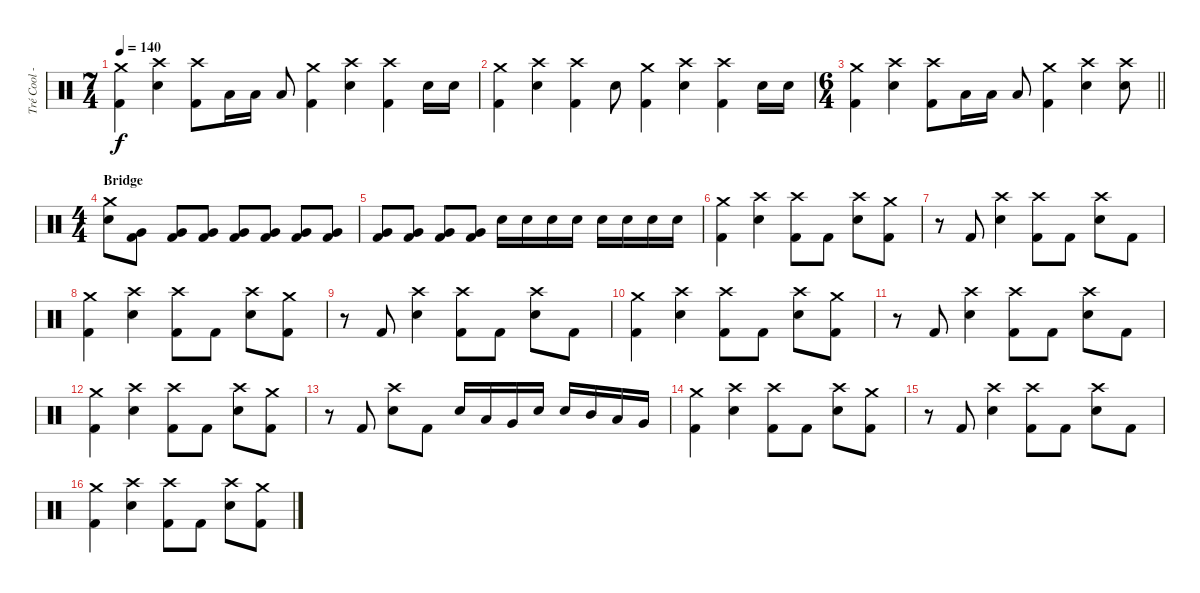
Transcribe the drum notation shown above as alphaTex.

\track ("Tré Cool - Drums" "Tré Cool -") {instrument percussion}
\staff {score}
\articulation defaults
\ts (7 4)
\tempo 140
\clef neutral
\ks c
("Crash medium (hit)" "Kick (hit) 2").4{dy f} ("Crash high (hit)" "Electric Snare (hit)").4 ("Crash high (hit)" "Kick (hit) 2").8 "Low Tom (hit)".16 "Low Tom (hit)".16 "Low Tom (hit)".8 ("Crash medium (hit)" "Kick (hit) 2").4 ("Crash high (hit)" "Electric Snare (hit)").4 ("Crash high (hit)" "Kick (hit) 2").4 "Electric Snare (hit)".16 "Electric Snare (hit)".16 |
("Crash medium (hit)" "Kick (hit) 2").4 ("Crash high (hit)" "Electric Snare (hit)").4 ("Crash high (hit)" "Kick (hit) 2").4 "Electric Snare (hit)".8 ("Crash medium (hit)" "Kick (hit) 2").4 ("Crash high (hit)" "Electric Snare (hit)").4 ("Crash high (hit)" "Kick (hit) 2").4 "Electric Snare (hit)".16 "Electric Snare (hit)".16 |
\ts (6 4)
\barLineRight lightlight
("Crash medium (hit)" "Kick (hit) 2").4 ("Crash high (hit)" "Electric Snare (hit)").4 ("Crash high (hit)" "Kick (hit) 2").8 "Low Tom (hit)".16 "Low Tom (hit)".16 "Low Tom (hit)".8 ("Crash medium (hit)" "Kick (hit) 2").4 ("Crash high (hit)" "Electric Snare (hit)").4 ("Crash high (hit)" "Electric Snare (hit)").8 |
\ts (4 4)
\section ("" "Bridge")
("Crash medium (hit)" "Electric Snare (hit)").8 ("Very Low Tom (hit)" "Kick (hit) 2").8 ("Very Low Tom (hit)" "Kick (hit) 2").8 ("Very Low Tom (hit)" "Kick (hit) 2").8 ("Very Low Tom (hit)" "Kick (hit) 2").8 ("Very Low Tom (hit)" "Kick (hit) 2").8 ("Very Low Tom (hit)" "Kick (hit) 2").8 ("Very Low Tom (hit)" "Kick (hit) 2").8 |
("Very Low Tom (hit)" "Kick (hit) 2").8 ("Very Low Tom (hit)" "Kick (hit) 2").8 ("Very Low Tom (hit)" "Kick (hit) 2").8 ("Very Low Tom (hit)" "Kick (hit) 2").8 "Electric Snare (hit)".16 "Electric Snare (hit)".16 "Electric Snare (hit)".16 "Electric Snare (hit)".16 "Electric Snare (hit)".16 "Electric Snare (hit)".16 "Electric Snare (hit)".16 "Electric Snare (hit)".16 |
("Crash medium (hit)" "Kick (hit) 2").4 ("Crash high (hit)" "Electric Snare (hit)").4 ("Crash high (hit)" "Kick (hit) 2").8 "Kick (hit) 2".8 ("Crash high (hit)" "Electric Snare (hit)").8 ("Crash medium (hit)" "Kick (hit) 2").8 |
r.8 "Kick (hit) 2".8 ("Crash high (hit)" "Electric Snare (hit)").4 ("Crash high (hit)" "Kick (hit) 2").8 "Kick (hit) 2".8 ("Crash high (hit)" "Electric Snare (hit)").8 "Kick (hit) 2".8 |
("Crash medium (hit)" "Kick (hit) 2").4 ("Crash high (hit)" "Electric Snare (hit)").4 ("Crash high (hit)" "Kick (hit) 2").8 "Kick (hit) 2".8 ("Crash high (hit)" "Electric Snare (hit)").8 ("Crash medium (hit)" "Kick (hit) 2").8 |
r.8 "Kick (hit) 2".8 ("Crash high (hit)" "Electric Snare (hit)").4 ("Crash high (hit)" "Kick (hit) 2").8 "Kick (hit) 2".8 ("Crash high (hit)" "Electric Snare (hit)").8 "Kick (hit) 2".8 |
("Crash medium (hit)" "Kick (hit) 2").4 ("Crash high (hit)" "Electric Snare (hit)").4 ("Crash high (hit)" "Kick (hit) 2").8 "Kick (hit) 2".8 ("Crash high (hit)" "Electric Snare (hit)").8 ("Crash medium (hit)" "Kick (hit) 2").8 |
r.8 "Kick (hit) 2".8 ("Crash high (hit)" "Electric Snare (hit)").4 ("Crash high (hit)" "Kick (hit) 2").8 "Kick (hit) 2".8 ("Crash high (hit)" "Electric Snare (hit)").8 "Kick (hit) 2".8 |
("Crash medium (hit)" "Kick (hit) 2").4 ("Crash high (hit)" "Electric Snare (hit)").4 ("Crash high (hit)" "Kick (hit) 2").8 "Kick (hit) 2".8 ("Crash high (hit)" "Electric Snare (hit)").8 ("Crash medium (hit)" "Kick (hit) 2").8 |
r.8 "Kick (hit) 2".8 ("Crash high (hit)" "Electric Snare (hit)").8 "Kick (hit) 2".8 "Electric Snare (hit)".16 "Low Tom (hit)".16 "Very Low Tom (hit)".16 "Electric Snare (hit)".16 "Electric Snare (hit)".16 "Mid Tom (hit)".16 "Low Tom (hit)".16 "Very Low Tom (hit)".16 |
("Crash medium (hit)" "Kick (hit) 2").4 ("Crash high (hit)" "Electric Snare (hit)").4 ("Crash high (hit)" "Kick (hit) 2").8 "Kick (hit) 2".8 ("Crash high (hit)" "Electric Snare (hit)").8 ("Crash medium (hit)" "Kick (hit) 2").8 |
r.8 "Kick (hit) 2".8 ("Crash high (hit)" "Electric Snare (hit)").4 ("Crash high (hit)" "Kick (hit) 2").8 "Kick (hit) 2".8 ("Crash high (hit)" "Electric Snare (hit)").8 "Kick (hit) 2".8 |
("Crash medium (hit)" "Kick (hit) 2").4 ("Crash high (hit)" "Electric Snare (hit)").4 ("Crash high (hit)" "Kick (hit) 2").8 "Kick (hit) 2".8 ("Crash high (hit)" "Electric Snare (hit)").8 ("Crash medium (hit)" "Kick (hit) 2").8
